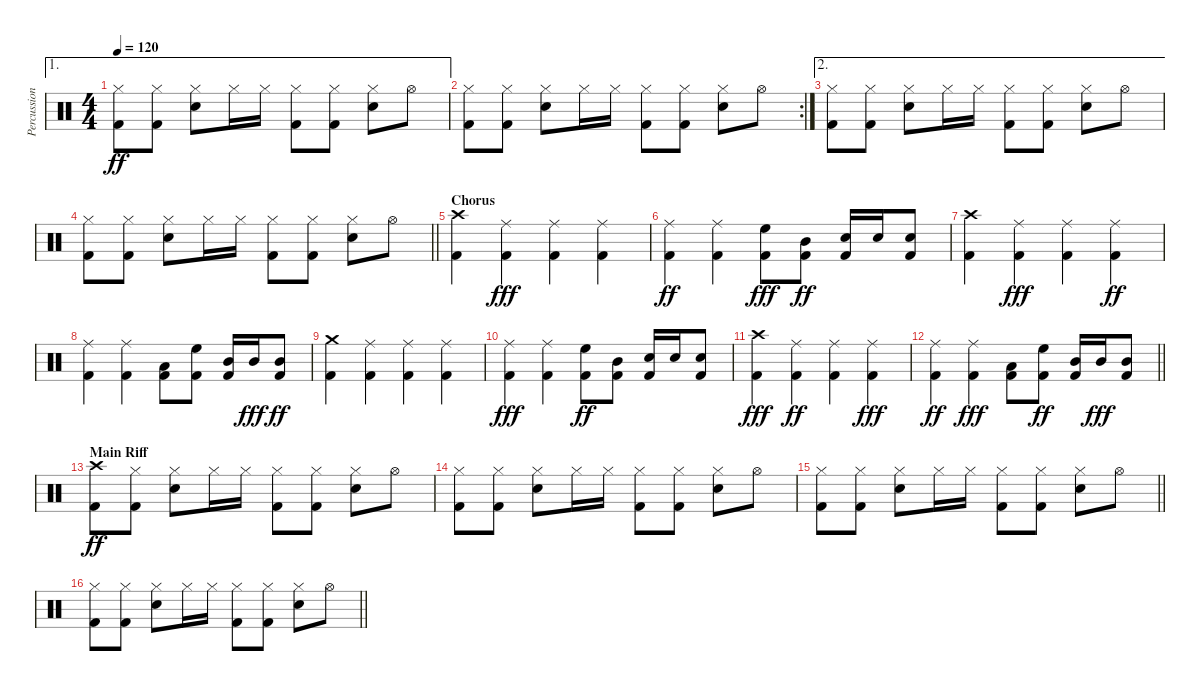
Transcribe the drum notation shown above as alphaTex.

\track ("Percussion" "Percussion") {instrument percussion}
\staff {score}
\articulation defaults
\ae 1
\ts (4 4)
\tempo 120
\clef neutral
\ks c
("Hi-Hat (closed)" "Kick (hit) 2").8{dy ff} ("Hi-Hat (closed)" "Kick (hit) 2").8 ("Hi-Hat (closed)" "Snare (hit) 2").8 "Hi-Hat (closed)".16 "Hi-Hat (closed)".16 ("Hi-Hat (closed)" "Kick (hit) 2").8 ("Hi-Hat (closed)" "Kick (hit) 2").8 ("Snare (hit) 2" "Hi-Hat (closed)").8 "Hi-Hat (open)".8 |
\rc 2
("Hi-Hat (closed)" "Kick (hit) 2").8 ("Kick (hit) 2" "Hi-Hat (closed)").8 ("Snare (hit) 2" "Hi-Hat (closed)").8 "Hi-Hat (closed)".16 "Hi-Hat (closed)".16 ("Hi-Hat (closed)" "Kick (hit) 2").8 ("Hi-Hat (closed)" "Kick (hit) 2").8 ("Hi-Hat (closed)" "Snare (hit) 2").8 "Hi-Hat (open)".8 |
\ae 2
("Kick (hit) 2" "Hi-Hat (closed)").8 ("Hi-Hat (closed)" "Kick (hit) 2").8 ("Hi-Hat (closed)" "Snare (hit) 2").8 "Hi-Hat (closed)".16 "Hi-Hat (closed)".16 ("Hi-Hat (closed)" "Kick (hit) 2").8 ("Hi-Hat (closed)" "Kick (hit) 2").8 ("Hi-Hat (closed)" "Snare (hit) 2").8 "Hi-Hat (open)".8 |
\barLineRight lightlight
("Hi-Hat (closed)" "Kick (hit) 2").8 ("Kick (hit) 2" "Hi-Hat (closed)").8 ("Snare (hit) 2" "Hi-Hat (closed)").8 "Hi-Hat (closed)".16 "Hi-Hat (closed)".16 ("Kick (hit) 2" "Hi-Hat (closed)").8 ("Hi-Hat (closed)" "Kick (hit) 2").8 ("Hi-Hat (closed)" "Snare (hit) 2").8 "Hi-Hat (open)".8 |
\section ("" "Chorus")
("Crash high (hit)" "Kick (hit) 2").4 ("Kick (hit) 2" "Ride (middle)").4{dy fff} ("Kick (hit) 2" "Ride (middle)").4 ("Kick (hit) 2" "Ride (middle)").4 |
("Ride (middle)" "Kick (hit) 2").4{dy ff} ("Ride (middle)" "Kick (hit) 2").4 ("Kick (hit) 2" "High Floor Tom (hit)").8{dy fff} ("Mid Tom (hit)" "Kick (hit) 2").8{dy ff} ("Snare (hit) 2" "Kick (hit) 2").16 "Snare (hit) 2".16 ("Snare (hit) 2" "Kick (hit) 2").8 |
("Crash high (hit)" "Kick (hit) 2").4 ("Kick (hit) 2" "Ride (middle)").4{dy fff} ("Kick (hit) 2" "Ride (middle)").4 ("Ride (middle)" "Kick (hit) 2").4{dy ff} |
("Ride (middle)" "Kick (hit) 2").4 ("Ride (middle)" "Kick (hit) 2").4 ("Low Tom (hit)" "Kick (hit) 2").8 ("High Floor Tom (hit)" "Kick (hit) 2").8 ("Mid Tom (hit)" "Kick (hit) 2").16 "Mid Tom (hit)".16{dy fff} ("Mid Tom (hit)" "Kick (hit) 2").8{dy ff} |
("Crash medium (hit)" "Kick (hit) 2").4 ("Ride (middle)" "Kick (hit) 2").4 ("Ride (middle)" "Kick (hit) 2").4 ("Ride (middle)" "Kick (hit) 2").4 |
("Kick (hit) 2" "Ride (middle)").4{dy fff} ("Kick (hit) 2" "Ride (middle)").4 ("High Floor Tom (hit)" "Kick (hit) 2").8{dy ff} ("Mid Tom (hit)" "Kick (hit) 2").8 ("Snare (hit) 2" "Kick (hit) 2").16 "Snare (hit) 2".16 ("Snare (hit) 2" "Kick (hit) 2").8 |
("Kick (hit) 2" "Crash high (hit)").4{dy fff} ("Ride (middle)" "Kick (hit) 2").4{dy ff} ("Ride (middle)" "Kick (hit) 2").4 ("Kick (hit) 2" "Ride (middle)").4{dy fff} |
\barLineRight lightlight
("Ride (middle)" "Kick (hit) 2").4{dy ff} ("Kick (hit) 2" "Ride (middle)").4{dy fff} ("Kick (hit) 2" "Low Tom (hit)").8 ("High Floor Tom (hit)" "Kick (hit) 2").8{dy ff} ("Mid Tom (hit)" "Kick (hit) 2").16 "Mid Tom (hit)".16{dy fff} ("Kick (hit) 2" "Mid Tom (hit)").8 |
\section ("" "Main Riff")
("Crash high (hit)" "Kick (hit) 2").8{dy ff} ("Hi-Hat (closed)" "Kick (hit) 2").8 ("Hi-Hat (closed)" "Snare (hit) 2").8 "Hi-Hat (closed)".16 "Hi-Hat (closed)".16 ("Hi-Hat (closed)" "Kick (hit) 2").8 ("Kick (hit) 2" "Hi-Hat (closed)").8 ("Hi-Hat (closed)" "Snare (hit) 2").8 "Hi-Hat (open)".8 |
("Hi-Hat (closed)" "Kick (hit) 2").8 ("Hi-Hat (closed)" "Kick (hit) 2").8 ("Hi-Hat (closed)" "Snare (hit) 2").8 "Hi-Hat (closed)".16 "Hi-Hat (closed)".16 ("Hi-Hat (closed)" "Kick (hit) 2").8 ("Hi-Hat (closed)" "Kick (hit) 2").8 ("Hi-Hat (closed)" "Snare (hit) 2").8 "Hi-Hat (open)".8 |
\barLineRight lightlight
("Hi-Hat (closed)" "Kick (hit) 2").8 ("Hi-Hat (closed)" "Kick (hit) 2").8 ("Hi-Hat (closed)" "Snare (hit) 2").8 "Hi-Hat (closed)".16 "Hi-Hat (closed)".16 ("Hi-Hat (closed)" "Kick (hit) 2").8 ("Hi-Hat (closed)" "Kick (hit) 2").8 ("Hi-Hat (closed)" "Snare (hit) 2").8 "Hi-Hat (open)".8 |
\barLineRight lightlight
("Hi-Hat (closed)" "Kick (hit) 2").8 ("Kick (hit) 2" "Hi-Hat (closed)").8 ("Snare (hit) 2" "Hi-Hat (closed)").8 "Hi-Hat (closed)".16 "Hi-Hat (closed)".16 ("Hi-Hat (closed)" "Kick (hit) 2").8 ("Hi-Hat (closed)" "Kick (hit) 2").8 ("Snare (hit) 2" "Hi-Hat (closed)").8 "Hi-Hat (open)".8
